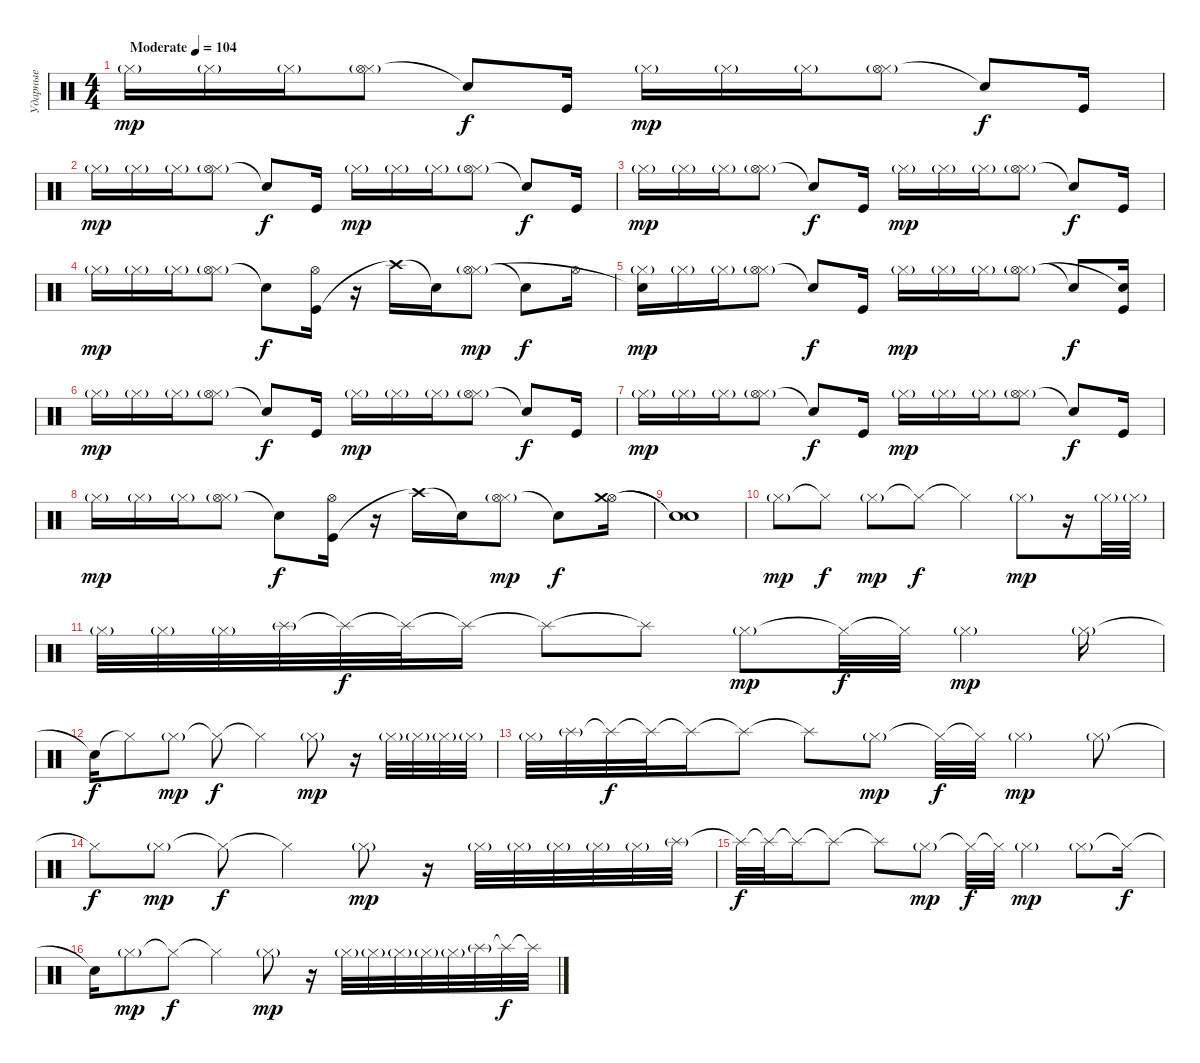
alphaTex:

\track ("Ударные" "Ударные") {instrument percussion}
\staff {score}
\articulation defaults
\ts (4 4)
\tempo (104 "Moderate")
\clef neutral
\ks c "Hi-Hat (closed)"{g}.16{dy mp} "Hi-Hat (closed)"{g}.16 "Hi-Hat (closed)"{g}.16
("Hi-Hat (closed)"{g} "Hi-Hat (open)").8 "Snare (hit)"{t}.8{dy f} "Kick (hit)".16 "Hi-Hat (closed)"{g}.16{dy mp} "Hi-Hat (closed)"{g}.16 "Hi-Hat (closed)"{g}.16 ("Hi-Hat (closed)"{g} "Hi-Hat (open)").8 "Snare (hit)"{t}.8{dy f} "Kick (hit)".16 |
"Hi-Hat (closed)"{g}.16{dy mp} "Hi-Hat (closed)"{g}.16 "Hi-Hat (closed)"{g}.16 ("Hi-Hat (closed)"{g} "Hi-Hat (open)").8 "Snare (hit)"{t}.8{dy f} "Kick (hit)".16 "Hi-Hat (closed)"{g}.16{dy mp} "Hi-Hat (closed)"{g}.16 "Hi-Hat (closed)"{g}.16 ("Hi-Hat (closed)"{g} "Hi-Hat (open)").8 "Snare (hit)"{t}.8{dy f} "Kick (hit)".16 |
"Hi-Hat (closed)"{g}.16{dy mp} "Hi-Hat (closed)"{g}.16 "Hi-Hat (closed)"{g}.16 ("Hi-Hat (closed)"{g} "Hi-Hat (open)").8 "Snare (hit)"{t}.8{dy f} "Kick (hit)".16 "Hi-Hat (closed)"{g}.16{dy mp} "Hi-Hat (closed)"{g}.16 "Hi-Hat (closed)"{g}.16 ("Hi-Hat (closed)"{g} "Hi-Hat (open)").8 "Snare (hit)"{t}.8{dy f} "Kick (hit)".16 |
"Hi-Hat (closed)"{g}.16{dy mp} "Hi-Hat (closed)"{g}.16 "Hi-Hat (closed)"{g}.16 ("Hi-Hat (closed)"{g} "Hi-Hat (open)").8 "Snare (hit)"{t}.8{dy f} ("Kick (hit)" "Hi-Hat (open)").16 r.16 "Crash high (hit)"{t}.16 "Snare (hit)"{t}.16 ("Hi-Hat (closed)"{g} "Hi-Hat (open)").8{dy mp} "Snare (hit)"{t}.8{dy f} "Hi-Hat (open)".16 |
("Hi-Hat (closed)"{g} "Snare (hit)"{t}).16{dy mp} "Hi-Hat (closed)"{g}.16 "Hi-Hat (closed)"{g}.16 ("Hi-Hat (closed)"{g} "Hi-Hat (open)").8 "Snare (hit)"{t}.8{dy f} "Kick (hit)".16 "Hi-Hat (closed)"{g}.16{dy mp} "Hi-Hat (closed)"{g}.16 "Hi-Hat (closed)"{g}.16 ("Hi-Hat (closed)"{g} "Hi-Hat (open)").8 "Snare (hit)"{t}.8{dy f} ("Kick (hit)" "Snare (hit)"{t}).16 |
"Hi-Hat (closed)"{g}.16{dy mp} "Hi-Hat (closed)"{g}.16 "Hi-Hat (closed)"{g}.16 ("Hi-Hat (closed)"{g} "Hi-Hat (open)").8 "Snare (hit)"{t}.8{dy f} "Kick (hit)".16 "Hi-Hat (closed)"{g}.16{dy mp} "Hi-Hat (closed)"{g}.16 "Hi-Hat (closed)"{g}.16 ("Hi-Hat (closed)"{g} "Hi-Hat (open)").8 "Snare (hit)"{t}.8{dy f} "Kick (hit)".16 |
"Hi-Hat (closed)"{g}.16{dy mp} "Hi-Hat (closed)"{g}.16 "Hi-Hat (closed)"{g}.16 ("Hi-Hat (closed)"{g} "Hi-Hat (open)").8 "Snare (hit)"{t}.8{dy f} "Kick (hit)".16 "Hi-Hat (closed)"{g}.16{dy mp} "Hi-Hat (closed)"{g}.16 "Hi-Hat (closed)"{g}.16 ("Hi-Hat (closed)"{g} "Hi-Hat (open)").8 "Snare (hit)"{t}.8{dy f} "Kick (hit)".16 |
"Hi-Hat (closed)"{g}.16{dy mp} "Hi-Hat (closed)"{g}.16 "Hi-Hat (closed)"{g}.16 ("Hi-Hat (closed)"{g} "Hi-Hat (open)").8 "Snare (hit)"{t}.8{dy f} ("Kick (hit)" "Hi-Hat (open)").16 r.16 "Crash high (hit)"{t}.16 "Snare (hit)"{t}.16 ("Hi-Hat (closed)"{g} "Hi-Hat (open)").8{dy mp} "Snare (hit)"{t}.8{dy f} ("Hi-Hat (open)" "Crash medium (hit)").16 |
("Snare (hit)"{t} "Snare (hit)"{t}).1 |
"Hi-Hat (closed)"{g}.8{dy mp} "Hi-Hat (closed)"{t}.8{dy f} "Hi-Hat (closed)"{g}.8{dy mp} "Hi-Hat (closed)"{t}.8{dy f} "Hi-Hat (closed)"{t}.4 "Hi-Hat (closed)"{g}.8{dy mp} r.16 "Hi-Hat (closed)"{g}.32 "Hi-Hat (closed)"{g}.32 |
"Hi-Hat (closed)"{g}.32 "Hi-Hat (closed)"{g}.32 "Hi-Hat (closed)"{g}.32 "Splash (hit)"{g}.32 "Splash (hit)"{t}.32{dy f} "Splash (hit)"{t}.32 "Splash (hit)"{t}.16 "Splash (hit)"{t}.8 "Splash (hit)"{t}.8 "Hi-Hat (closed)"{g}.8{dy mp} "Hi-Hat (closed)"{t}.32{dy f} "Hi-Hat (closed)"{t}.32 "Hi-Hat (closed)"{g}.4{dy mp} "Hi-Hat (closed)"{g}.16 |
"Snare (hit)"{t}.16{dy f} "Hi-Hat (closed)"{t}.8 "Hi-Hat (closed)"{g}.8{dy mp} "Hi-Hat (closed)"{t}.8{dy f} "Hi-Hat (closed)"{t}.4 "Hi-Hat (closed)"{g}.8{dy mp} r.16 "Hi-Hat (closed)"{g}.32 "Hi-Hat (closed)"{g}.32 "Hi-Hat (closed)"{g}.32 "Hi-Hat (closed)"{g}.32 |
"Hi-Hat (closed)"{g}.32 "Splash (hit)"{g}.32 "Splash (hit)"{t}.32{dy f} "Splash (hit)"{t}.32 "Splash (hit)"{t}.16 "Splash (hit)"{t}.8 "Splash (hit)"{t}.8 "Hi-Hat (closed)"{g}.8{dy mp} "Hi-Hat (closed)"{t}.32{dy f} "Hi-Hat (closed)"{t}.32 "Hi-Hat (closed)"{g}.4{dy mp} "Hi-Hat (closed)"{g}.8 |
"Hi-Hat (closed)"{t}.8{dy f} "Hi-Hat (closed)"{g}.8{dy mp} "Hi-Hat (closed)"{t}.8{dy f} "Hi-Hat (closed)"{t}.4 "Hi-Hat (closed)"{g}.8{dy mp} r.16 "Hi-Hat (closed)"{g}.32 "Hi-Hat (closed)"{g}.32 "Hi-Hat (closed)"{g}.32 "Hi-Hat (closed)"{g}.32 "Hi-Hat (closed)"{g}.32 "Splash (hit)"{g}.32 |
"Splash (hit)"{t}.32{dy f} "Splash (hit)"{t}.32 "Splash (hit)"{t}.16 "Splash (hit)"{t}.8 "Splash (hit)"{t}.8 "Hi-Hat (closed)"{g}.8{dy mp} "Hi-Hat (closed)"{t}.32{dy f} "Hi-Hat (closed)"{t}.32 "Hi-Hat (closed)"{g}.4{dy mp} "Hi-Hat (closed)"{g}.8 "Hi-Hat (closed)"{t}.16{dy f} |
"Snare (hit)"{t}.16 "Hi-Hat (closed)"{g}.8{dy mp} "Hi-Hat (closed)"{t}.8{dy f} "Hi-Hat (closed)"{t}.4 "Hi-Hat (closed)"{g}.8{dy mp} r.16 "Hi-Hat (closed)"{g}.32 "Hi-Hat (closed)"{g}.32 "Hi-Hat (closed)"{g}.32 "Hi-Hat (closed)"{g}.32 "Hi-Hat (closed)"{g}.32 "Splash (hit)"{g}.32 "Splash (hit)"{t}.32{dy f} "Splash (hit)"{t}.32
